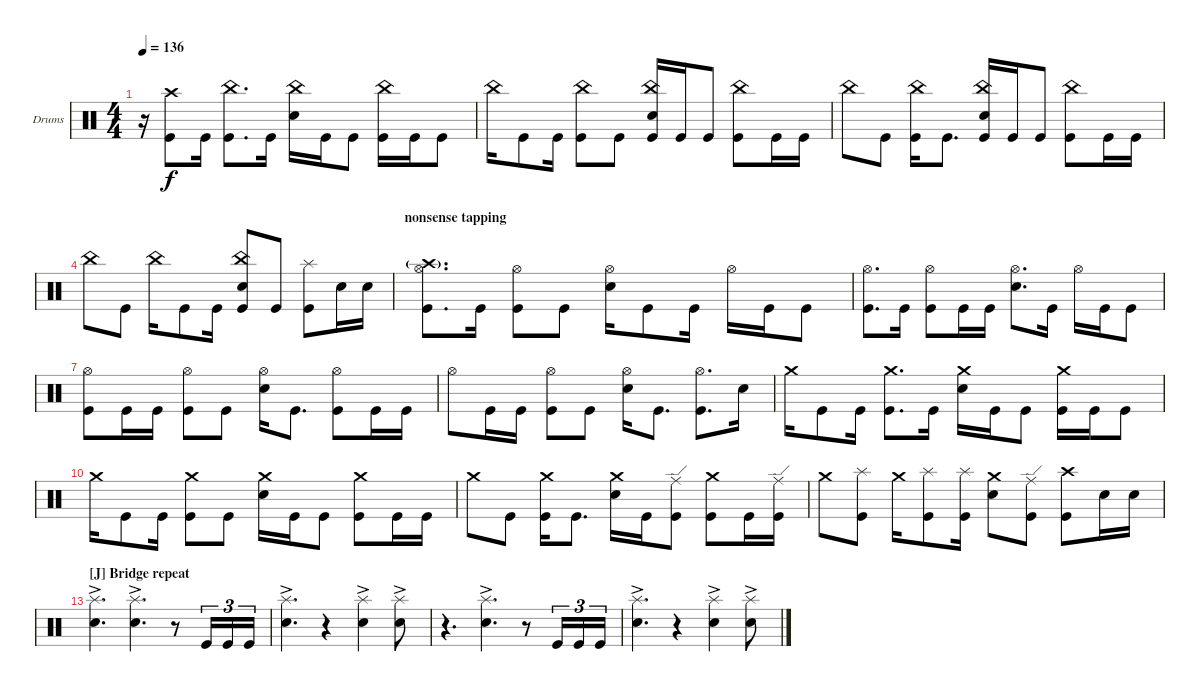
\defaultSystemsLayout 4
\bracketExtendMode groupsimilarinstruments
\firstSystemTrackNameOrientation horizontal
\otherSystemsTrackNameOrientation horizontal
\defaultBarNumberDisplay FirstOfSystem
\track ("Drumkit" "Drums") {multiBarRest instrument percussion}
\staff {score}
\articulation defaults
\ts (4 4)
\tempo 136
\clef neutral
\ks c
r.16{dy f} ("Kick (hit)" "Crash high (hit)").8 "Kick (hit)".16 ("China (hit)" "Kick (hit)").8{d} "Kick (hit)".16 ("China (hit)" "Snare (hit) 2").16 "Kick (hit)".16 "Kick (hit)".8 ("China (hit)" "Kick (hit)").16 "Kick (hit)".16 "Kick (hit)".8 |
"China (hit)".16 "Kick (hit)".8 "Kick (hit)".16 ("China (hit)" "Kick (hit)").8 "Kick (hit)".8 ("China (hit)" "Snare (hit) 2" "Kick (hit)").16 "Kick (hit)".16 "Kick (hit)".8 ("China (hit)" "Kick (hit)").8 "Kick (hit)".16 "Kick (hit)".16 |
"China (hit)".8 "Kick (hit)".8 ("China (hit)" "Kick (hit)").16 "Kick (hit)".8{d} ("China (hit)" "Snare (hit) 2" "Kick (hit)").16 "Kick (hit)".16 "Kick (hit)".8 ("China (hit)" "Kick (hit)").8 "Kick (hit)".16 "Kick (hit)".16 |
"China (hit)".8 "Kick (hit)".8 "China (hit)".16 "Kick (hit)".8 "Kick (hit)".16 ("China (hit)" "Snare (hit) 2" "Kick (hit)").8 "Kick (hit)".8 ("Splash (hit)" "Kick (hit)").8 "Snare (hit) 2".16 "Snare (hit) 2".16 |
\section ("" "nonsense tapping")
("Kick (hit)" "Hi-Hat (open)" "Crash high (hit)"{g}).8{d} "Kick (hit)".16 ("Kick (hit)" "Hi-Hat (open)").8 "Kick (hit)".8 ("Snare (hit) 2" "Hi-Hat (open)").16 "Kick (hit)".8 "Kick (hit)".16 "Hi-Hat (open)".16 "Kick (hit)".16 "Kick (hit)".8 |
("Kick (hit)" "Hi-Hat (open)").8{d} "Kick (hit)".16 ("Kick (hit)" "Hi-Hat (open)").8 "Kick (hit)".16 "Kick (hit)".16 ("Snare (hit) 2" "Hi-Hat (open)").8{d} "Kick (hit)".16 "Hi-Hat (open)".16 "Kick (hit)".16 "Kick (hit)".8 |
("Kick (hit)" "Hi-Hat (open)").8 "Kick (hit)".16 "Kick (hit)".16 ("Kick (hit)" "Hi-Hat (open)").8 "Kick (hit)".8 ("Snare (hit) 2" "Hi-Hat (open)").16 "Kick (hit)".8{d} ("Kick (hit)" "Hi-Hat (open)").8 "Kick (hit)".16 "Kick (hit)".16 |
"Hi-Hat (open)".8 "Kick (hit)".16 "Kick (hit)".16 ("Kick (hit)" "Hi-Hat (open)").8 "Kick (hit)".8 ("Snare (hit) 2" "Hi-Hat (open)").16 "Kick (hit)".8{d} ("Kick (hit)" "Hi-Hat (open)").8{d} "Snare (hit) 2".16 |
"Crash medium (hit)".16 "Kick (hit)".8 "Kick (hit)".16 ("Kick (hit)" "Crash medium (hit)").8{d} "Kick (hit)".16 ("Crash medium (hit)" "Snare (hit) 2").16 "Kick (hit)".16 "Kick (hit)".8 ("Crash medium (hit)" "Kick (hit)").16 "Kick (hit)".16 "Kick (hit)".8 |
"Crash medium (hit)".16 "Kick (hit)".8 "Kick (hit)".16 ("Crash medium (hit)" "Kick (hit)").8 "Kick (hit)".8 ("Crash medium (hit)" "Snare (hit) 2").16 "Kick (hit)".16 "Kick (hit)".8 ("Crash medium (hit)" "Kick (hit)").8 "Kick (hit)".16 "Kick (hit)".16 |
"Crash medium (hit)".8 "Kick (hit)".8 ("Crash medium (hit)" "Kick (hit)").16 "Kick (hit)".8{d} ("Crash medium (hit)" "Snare (hit) 2").16 "Kick (hit)".16 ("Kick (hit)" "Ride (edge)").8 ("Crash medium (hit)" "Kick (hit)").8 "Kick (hit)".16 ("Kick (hit)" "Ride (edge)").16 |
"Crash medium (hit)".8 ("Kick (hit)" "Splash (hit)").8 "Crash medium (hit)".16 ("Kick (hit)" "Splash (hit)").8 ("Kick (hit)" "Splash (hit)").16 ("Crash medium (hit)" "Snare (hit) 2").8 ("Kick (hit)" "Ride (edge)").8 ("Kick (hit)" "Crash high (hit)").8 "Snare (hit) 2".16 "Snare (hit) 2".16 |
\section ("J" "Bridge repeat")
("Splash (hit)" "Snare (hit) 2"{ac}).4{d} ("Splash (hit)" "Snare (hit) 2"{ac}).4{d} r.8 "Kick (hit)".16{tu (3 2)} "Kick (hit)".16{tu (3 2)} "Kick (hit)".16{tu (3 2)} |
("Splash (hit)" "Snare (hit) 2"{ac}).4{d} r.4 ("Splash (hit)" "Snare (hit) 2"{ac}).4 ("Splash (hit)" "Snare (hit) 2"{ac}).8 |
r.4{d} ("Splash (hit)" "Snare (hit) 2"{ac}).4{d} r.8 "Kick (hit)".16{tu (3 2)} "Kick (hit)".16{tu (3 2)} "Kick (hit)".16{tu (3 2)} |
("Splash (hit)" "Snare (hit) 2"{ac}).4{d} r.4 ("Splash (hit)" "Snare (hit) 2"{ac}).4 ("Splash (hit)" "Snare (hit) 2"{ac}).8
